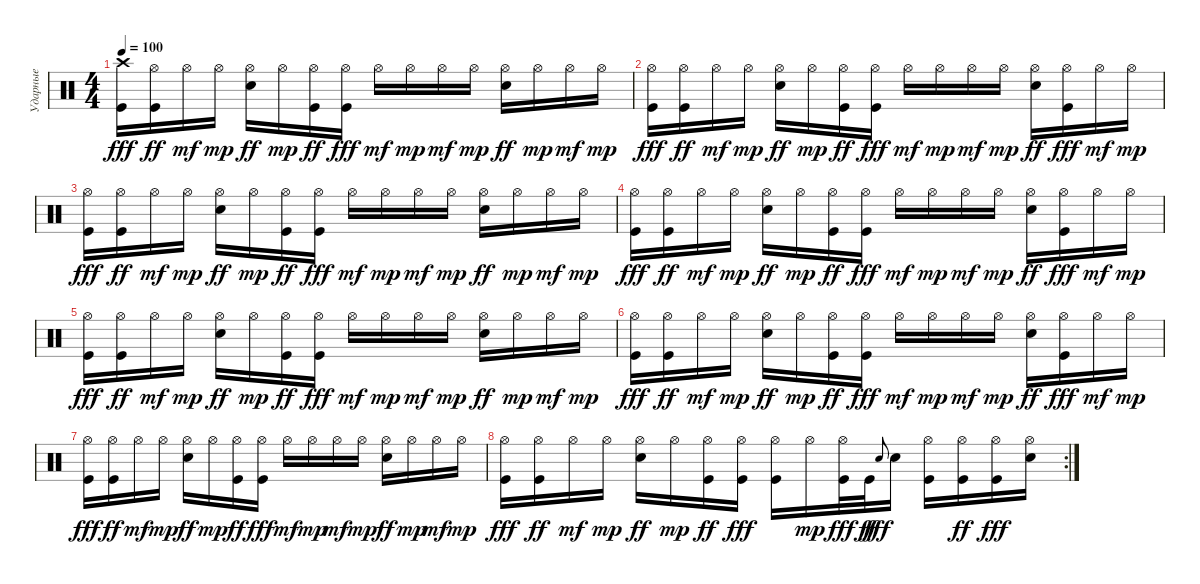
\track ("Ударные" "Ударные") {instrument percussion}
\staff {score}
\articulation defaults
\ts (4 4)
\tempo 100
\clef neutral
\ks c
("Crash high (hit)" "Kick (hit)").16{dy fff} ("Hi-Hat (open)" "Kick (hit)").16{dy ff} "Hi-Hat (open)".16{dy mf} "Hi-Hat (open)".16{dy mp} ("Hi-Hat (open)" "Electric Snare (hit)").16{dy ff} "Hi-Hat (open)".16{dy mp} ("Hi-Hat (open)" "Kick (hit)").16{dy ff} ("Hi-Hat (open)" "Kick (hit)").16{dy fff} "Hi-Hat (open)".16{dy mf} "Hi-Hat (open)".16{dy mp} "Hi-Hat (open)".16{dy mf} "Hi-Hat (open)".16{dy mp} ("Hi-Hat (open)" "Electric Snare (hit)").16{dy ff} "Hi-Hat (open)".16{dy mp} "Hi-Hat (open)".16{dy mf} "Hi-Hat (open)".16{dy mp} |
("Hi-Hat (open)" "Kick (hit)").16{dy fff} ("Hi-Hat (open)" "Kick (hit)").16{dy ff} "Hi-Hat (open)".16{dy mf} "Hi-Hat (open)".16{dy mp} ("Hi-Hat (open)" "Electric Snare (hit)").16{dy ff} "Hi-Hat (open)".16{dy mp} ("Hi-Hat (open)" "Kick (hit)").16{dy ff} ("Hi-Hat (open)" "Kick (hit)").16{dy fff} "Hi-Hat (open)".16{dy mf} "Hi-Hat (open)".16{dy mp} "Hi-Hat (open)".16{dy mf} "Hi-Hat (open)".16{dy mp} ("Hi-Hat (open)" "Electric Snare (hit)").16{dy ff} ("Hi-Hat (open)" "Kick (hit)").16{dy fff} "Hi-Hat (open)".16{dy mf} "Hi-Hat (open)".16{dy mp} |
("Hi-Hat (open)" "Kick (hit)").16{dy fff} ("Hi-Hat (open)" "Kick (hit)").16{dy ff} "Hi-Hat (open)".16{dy mf} "Hi-Hat (open)".16{dy mp} ("Hi-Hat (open)" "Electric Snare (hit)").16{dy ff} "Hi-Hat (open)".16{dy mp} ("Hi-Hat (open)" "Kick (hit)").16{dy ff} ("Hi-Hat (open)" "Kick (hit)").16{dy fff} "Hi-Hat (open)".16{dy mf} "Hi-Hat (open)".16{dy mp} "Hi-Hat (open)".16{dy mf} "Hi-Hat (open)".16{dy mp} ("Hi-Hat (open)" "Electric Snare (hit)").16{dy ff} "Hi-Hat (open)".16{dy mp} "Hi-Hat (open)".16{dy mf} "Hi-Hat (open)".16{dy mp} |
("Hi-Hat (open)" "Kick (hit)").16{dy fff} ("Hi-Hat (open)" "Kick (hit)").16{dy ff} "Hi-Hat (open)".16{dy mf} "Hi-Hat (open)".16{dy mp} ("Hi-Hat (open)" "Electric Snare (hit)").16{dy ff} "Hi-Hat (open)".16{dy mp} ("Hi-Hat (open)" "Kick (hit)").16{dy ff} ("Hi-Hat (open)" "Kick (hit)").16{dy fff} "Hi-Hat (open)".16{dy mf} "Hi-Hat (open)".16{dy mp} "Hi-Hat (open)".16{dy mf} "Hi-Hat (open)".16{dy mp} ("Hi-Hat (open)" "Electric Snare (hit)").16{dy ff} ("Hi-Hat (open)" "Kick (hit)").16{dy fff} "Hi-Hat (open)".16{dy mf} "Hi-Hat (open)".16{dy mp} |
("Hi-Hat (open)" "Kick (hit)").16{dy fff} ("Hi-Hat (open)" "Kick (hit)").16{dy ff} "Hi-Hat (open)".16{dy mf} "Hi-Hat (open)".16{dy mp} ("Hi-Hat (open)" "Electric Snare (hit)").16{dy ff} "Hi-Hat (open)".16{dy mp} ("Hi-Hat (open)" "Kick (hit)").16{dy ff} ("Hi-Hat (open)" "Kick (hit)").16{dy fff} "Hi-Hat (open)".16{dy mf} "Hi-Hat (open)".16{dy mp} "Hi-Hat (open)".16{dy mf} "Hi-Hat (open)".16{dy mp} ("Hi-Hat (open)" "Electric Snare (hit)").16{dy ff} "Hi-Hat (open)".16{dy mp} "Hi-Hat (open)".16{dy mf} "Hi-Hat (open)".16{dy mp} |
("Hi-Hat (open)" "Kick (hit)").16{dy fff} ("Hi-Hat (open)" "Kick (hit)").16{dy ff} "Hi-Hat (open)".16{dy mf} "Hi-Hat (open)".16{dy mp} ("Hi-Hat (open)" "Electric Snare (hit)").16{dy ff} "Hi-Hat (open)".16{dy mp} ("Hi-Hat (open)" "Kick (hit)").16{dy ff} ("Hi-Hat (open)" "Kick (hit)").16{dy fff} "Hi-Hat (open)".16{dy mf} "Hi-Hat (open)".16{dy mp} "Hi-Hat (open)".16{dy mf} "Hi-Hat (open)".16{dy mp} ("Hi-Hat (open)" "Electric Snare (hit)").16{dy ff} ("Hi-Hat (open)" "Kick (hit)").16{dy fff} "Hi-Hat (open)".16{dy mf} "Hi-Hat (open)".16{dy mp} |
("Hi-Hat (open)" "Kick (hit)").16{dy fff} ("Hi-Hat (open)" "Kick (hit)").16{dy ff} "Hi-Hat (open)".16{dy mf} "Hi-Hat (open)".16{dy mp} ("Hi-Hat (open)" "Electric Snare (hit)").16{dy ff} "Hi-Hat (open)".16{dy mp} ("Hi-Hat (open)" "Kick (hit)").16{dy ff} ("Hi-Hat (open)" "Kick (hit)").16{dy fff} "Hi-Hat (open)".16{dy mf} "Hi-Hat (open)".16{dy mp} "Hi-Hat (open)".16{dy mf} "Hi-Hat (open)".16{dy mp} ("Hi-Hat (open)" "Electric Snare (hit)").16{dy ff} "Hi-Hat (open)".16{dy mp} "Hi-Hat (open)".16{dy mf} "Hi-Hat (open)".16{dy mp} |
\rc 2
("Hi-Hat (open)" "Kick (hit)").16{dy fff} ("Hi-Hat (open)" "Kick (hit)").16{dy ff} "Hi-Hat (open)".16{dy mf} "Hi-Hat (open)".16{dy mp} ("Hi-Hat (open)" "Electric Snare (hit)").16{dy ff} "Hi-Hat (open)".16{dy mp} ("Hi-Hat (open)" "Kick (hit)").16{dy ff} ("Hi-Hat (open)" "Kick (hit)").16{dy fff} ("Hi-Hat (open)" "Kick (hit)").16 "Hi-Hat (open)".16{dy mp} ("Hi-Hat (open)" "Kick (hit)").32{dy fff} "Kick (hit)".32{dy ff} "Electric Snare (hit)"{x}.8{gr onbeat dy fff} "Electric Snare (hit)".16 ("Hi-Hat (open)" "Kick (hit)").16 ("Hi-Hat (open)" "Kick (hit)").16{dy ff} ("Hi-Hat (open)" "Kick (hit)").16{dy fff} ("Hi-Hat (open)" "Electric Snare (hit)").16
